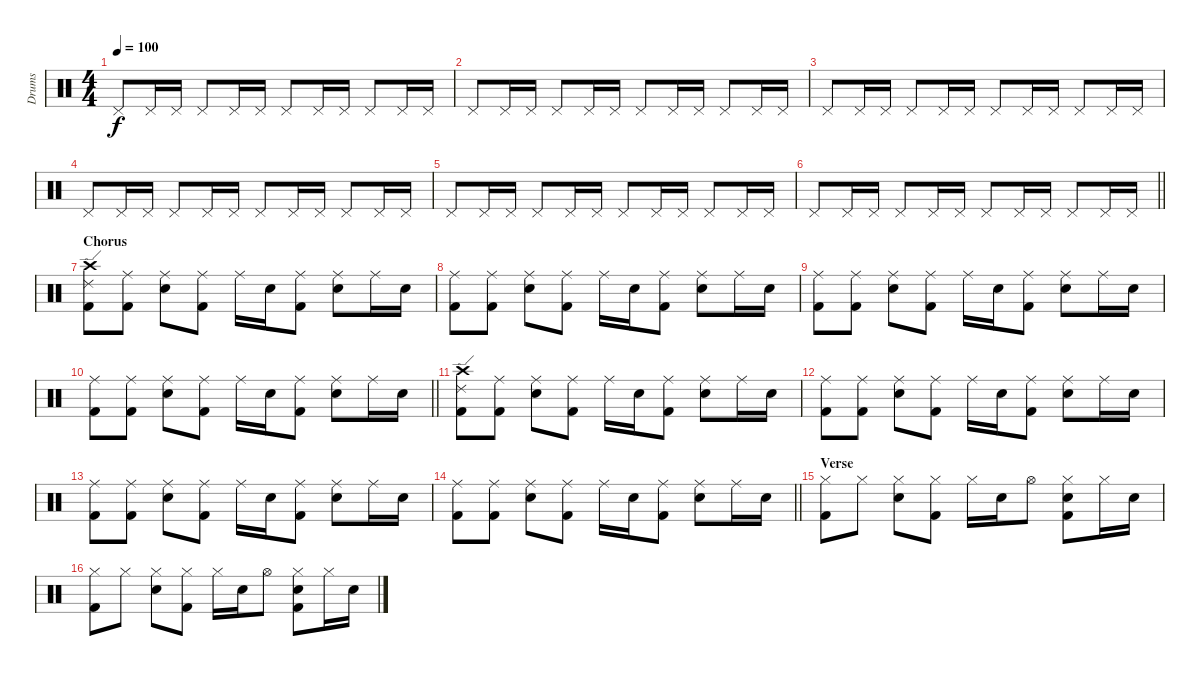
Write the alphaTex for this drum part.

\track ("Drums" "Drums") {instrument percussion}
\staff {score}
\articulation defaults
\ts (4 4)
\tempo 100
\clef neutral
\ks c "Pedal Hi-Hat (hit)".8{dy f} "Pedal Hi-Hat (hit)".16 "Pedal Hi-Hat (hit)".16 "Pedal Hi-Hat (hit)".8 "Pedal Hi-Hat (hit)".16 "Pedal Hi-Hat (hit)".16 "Pedal Hi-Hat (hit)".8 "Pedal Hi-Hat (hit)".16 "Pedal Hi-Hat (hit)".16 "Pedal Hi-Hat (hit)".8 "Pedal Hi-Hat (hit)".16 "Pedal Hi-Hat (hit)".16
|
"Pedal Hi-Hat (hit)".8 "Pedal Hi-Hat (hit)".16 "Pedal Hi-Hat (hit)".16 "Pedal Hi-Hat (hit)".8 "Pedal Hi-Hat (hit)".16 "Pedal Hi-Hat (hit)".16 "Pedal Hi-Hat (hit)".8 "Pedal Hi-Hat (hit)".16 "Pedal Hi-Hat (hit)".16 "Pedal Hi-Hat (hit)".8 "Pedal Hi-Hat (hit)".16 "Pedal Hi-Hat (hit)".16 |
"Pedal Hi-Hat (hit)".8 "Pedal Hi-Hat (hit)".16 "Pedal Hi-Hat (hit)".16 "Pedal Hi-Hat (hit)".8 "Pedal Hi-Hat (hit)".16 "Pedal Hi-Hat (hit)".16 "Pedal Hi-Hat (hit)".8 "Pedal Hi-Hat (hit)".16 "Pedal Hi-Hat (hit)".16 "Pedal Hi-Hat (hit)".8 "Pedal Hi-Hat (hit)".16 "Pedal Hi-Hat (hit)".16 |
"Pedal Hi-Hat (hit)".8 "Pedal Hi-Hat (hit)".16 "Pedal Hi-Hat (hit)".16 "Pedal Hi-Hat (hit)".8 "Pedal Hi-Hat (hit)".16 "Pedal Hi-Hat (hit)".16 "Pedal Hi-Hat (hit)".8 "Pedal Hi-Hat (hit)".16 "Pedal Hi-Hat (hit)".16 "Pedal Hi-Hat (hit)".8 "Pedal Hi-Hat (hit)".16 "Pedal Hi-Hat (hit)".16 |
"Pedal Hi-Hat (hit)".8 "Pedal Hi-Hat (hit)".16 "Pedal Hi-Hat (hit)".16 "Pedal Hi-Hat (hit)".8 "Pedal Hi-Hat (hit)".16 "Pedal Hi-Hat (hit)".16 "Pedal Hi-Hat (hit)".8 "Pedal Hi-Hat (hit)".16 "Pedal Hi-Hat (hit)".16 "Pedal Hi-Hat (hit)".8 "Pedal Hi-Hat (hit)".16 "Pedal Hi-Hat (hit)".16 |
\barLineRight lightlight "Pedal Hi-Hat (hit)".8 "Pedal Hi-Hat (hit)".16 "Pedal Hi-Hat (hit)".16 "Pedal Hi-Hat (hit)".8 "Pedal Hi-Hat (hit)".16 "Pedal Hi-Hat (hit)".16 "Pedal Hi-Hat (hit)".8 "Pedal Hi-Hat (hit)".16 "Pedal Hi-Hat (hit)".16 "Pedal Hi-Hat (hit)".8 "Pedal Hi-Hat (hit)".16 "Pedal Hi-Hat (hit)".16
|
\section ("" "Chorus")
("Crash high (hit)" "Ride (edge) 2" "Kick (hit) 2").8 ("Ride (middle)" "Kick (hit) 2").8 ("Electric Snare (hit)" "Ride (middle)").8 ("Ride (middle)" "Kick (hit) 2").8 "Ride (middle)".16 "Electric Snare (hit)".16 ("Ride (middle)" "Kick (hit) 2").8 ("Electric Snare (hit)" "Ride (middle)").8 "Ride (middle)".16 "Electric Snare (hit)".16 |
("Ride (middle)" "Kick (hit) 2").8 ("Ride (middle)" "Kick (hit) 2").8 ("Electric Snare (hit)" "Ride (middle)").8 ("Ride (middle)" "Kick (hit) 2").8 "Ride (middle)".16 "Electric Snare (hit)".16 ("Ride (middle)" "Kick (hit) 2").8 ("Electric Snare (hit)" "Ride (middle)").8 "Ride (middle)".16 "Electric Snare (hit)".16 |
("Ride (middle)" "Kick (hit) 2").8 ("Ride (middle)" "Kick (hit) 2").8 ("Electric Snare (hit)" "Ride (middle)").8 ("Ride (middle)" "Kick (hit) 2").8 "Ride (middle)".16 "Electric Snare (hit)".16 ("Ride (middle)" "Kick (hit) 2").8 ("Electric Snare (hit)" "Ride (middle)").8 "Ride (middle)".16 "Electric Snare (hit)".16 |
\barLineRight lightlight
("Ride (middle)" "Kick (hit) 2").8 ("Ride (middle)" "Kick (hit) 2").8 ("Electric Snare (hit)" "Ride (middle)").8 ("Ride (middle)" "Kick (hit) 2").8 "Ride (middle)".16 "Electric Snare (hit)".16 ("Ride (middle)" "Kick (hit) 2").8 ("Electric Snare (hit)" "Ride (middle)").8 "Ride (middle)".16 "Electric Snare (hit)".16 |
("Crash high (hit)" "Ride (edge) 2" "Kick (hit) 2").8 ("Ride (middle)" "Kick (hit) 2").8 ("Electric Snare (hit)" "Ride (middle)").8 ("Ride (middle)" "Kick (hit) 2").8 "Ride (middle)".16 "Electric Snare (hit)".16 ("Ride (middle)" "Kick (hit) 2").8 ("Electric Snare (hit)" "Ride (middle)").8 "Ride (middle)".16 "Electric Snare (hit)".16 |
("Ride (middle)" "Kick (hit) 2").8 ("Ride (middle)" "Kick (hit) 2").8 ("Electric Snare (hit)" "Ride (middle)").8 ("Ride (middle)" "Kick (hit) 2").8 "Ride (middle)".16 "Electric Snare (hit)".16 ("Ride (middle)" "Kick (hit) 2").8 ("Electric Snare (hit)" "Ride (middle)").8 "Ride (middle)".16 "Electric Snare (hit)".16 |
("Ride (middle)" "Kick (hit) 2").8 ("Ride (middle)" "Kick (hit) 2").8 ("Electric Snare (hit)" "Ride (middle)").8 ("Ride (middle)" "Kick (hit) 2").8 "Ride (middle)".16 "Electric Snare (hit)".16 ("Ride (middle)" "Kick (hit) 2").8 ("Electric Snare (hit)" "Ride (middle)").8 "Ride (middle)".16 "Electric Snare (hit)".16 |
\barLineRight lightlight
("Ride (middle)" "Kick (hit) 2").8 ("Ride (middle)" "Kick (hit) 2").8 ("Electric Snare (hit)" "Ride (middle)").8 ("Ride (middle)" "Kick (hit) 2").8 "Ride (middle)".16 "Electric Snare (hit)".16 ("Ride (middle)" "Kick (hit) 2").8 ("Electric Snare (hit)" "Ride (middle)").8 "Ride (middle)".16 "Electric Snare (hit)".16 |
\section ("" "Verse")
("Hi-Hat (closed)" "Kick (hit) 2").8 "Hi-Hat (closed)".8 ("Electric Snare (hit)" "Hi-Hat (closed)").8 ("Hi-Hat (closed)" "Kick (hit) 2").8 "Hi-Hat (closed)".16 "Electric Snare (hit)".16 "Hi-Hat (open)".8 ("Electric Snare (hit)" "Hi-Hat (closed)" "Kick (hit) 2").8 "Hi-Hat (closed)".16 "Electric Snare (hit)".16 |
("Hi-Hat (closed)" "Kick (hit) 2").8 "Hi-Hat (closed)".8 ("Electric Snare (hit)" "Hi-Hat (closed)").8 ("Hi-Hat (closed)" "Kick (hit) 2").8 "Hi-Hat (closed)".16 "Electric Snare (hit)".16 "Hi-Hat (open)".8 ("Electric Snare (hit)" "Hi-Hat (closed)" "Kick (hit) 2").8 "Hi-Hat (closed)".16 "Electric Snare (hit)".16
